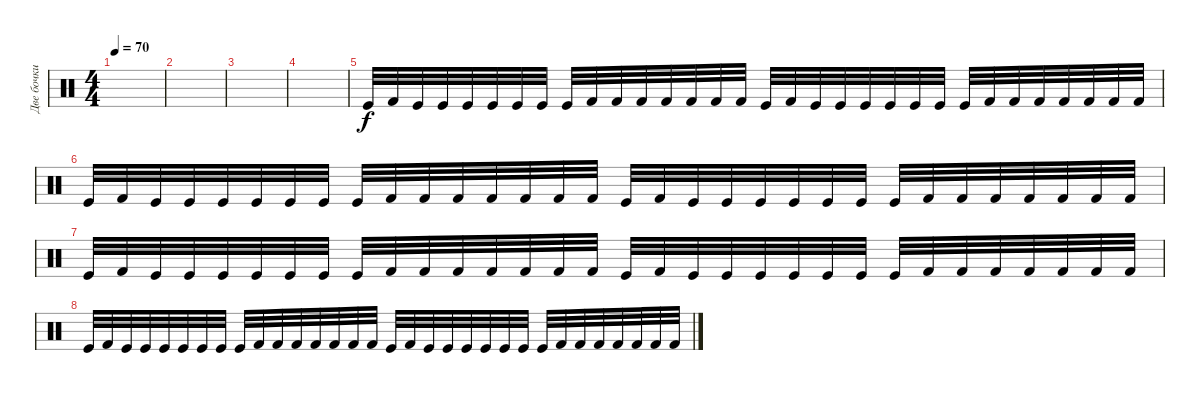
\track ("Две бочки" "Две бочки") {instrument percussion}
\staff {score}
\articulation defaults
\ts (4 4)
\tempo 70
\clef neutral
\ks c
|
|
|
|
"Kick (hit)".32 "Kick (hit) 2".32 "Kick (hit)".32 "Kick (hit)".32 "Kick (hit)".32 "Kick (hit)".32 "Kick (hit)".32 "Kick (hit)".32 "Kick (hit)".32 "Kick (hit) 2".32 "Kick (hit) 2".32 "Kick (hit) 2".32 "Kick (hit) 2".32 "Kick (hit) 2".32 "Kick (hit) 2".32 "Kick (hit) 2".32 "Kick (hit)".32 "Kick (hit) 2".32 "Kick (hit)".32 "Kick (hit)".32 "Kick (hit)".32 "Kick (hit)".32 "Kick (hit)".32 "Kick (hit)".32 "Kick (hit)".32 "Kick (hit) 2".32 "Kick (hit) 2".32 "Kick (hit) 2".32 "Kick (hit) 2".32 "Kick (hit) 2".32 "Kick (hit) 2".32 "Kick (hit) 2".32 |
"Kick (hit)".32 "Kick (hit) 2".32 "Kick (hit)".32 "Kick (hit)".32 "Kick (hit)".32 "Kick (hit)".32 "Kick (hit)".32 "Kick (hit)".32 "Kick (hit)".32 "Kick (hit) 2".32 "Kick (hit) 2".32 "Kick (hit) 2".32 "Kick (hit) 2".32 "Kick (hit) 2".32 "Kick (hit) 2".32 "Kick (hit) 2".32 "Kick (hit)".32 "Kick (hit) 2".32 "Kick (hit)".32 "Kick (hit)".32 "Kick (hit)".32 "Kick (hit)".32 "Kick (hit)".32 "Kick (hit)".32 "Kick (hit)".32 "Kick (hit) 2".32 "Kick (hit) 2".32 "Kick (hit) 2".32 "Kick (hit) 2".32 "Kick (hit) 2".32 "Kick (hit) 2".32 "Kick (hit) 2".32 |
"Kick (hit)".32 "Kick (hit) 2".32 "Kick (hit)".32 "Kick (hit)".32 "Kick (hit)".32 "Kick (hit)".32 "Kick (hit)".32 "Kick (hit)".32 "Kick (hit)".32 "Kick (hit) 2".32 "Kick (hit) 2".32 "Kick (hit) 2".32 "Kick (hit) 2".32 "Kick (hit) 2".32 "Kick (hit) 2".32 "Kick (hit) 2".32 "Kick (hit)".32 "Kick (hit) 2".32 "Kick (hit)".32 "Kick (hit)".32 "Kick (hit)".32 "Kick (hit)".32 "Kick (hit)".32 "Kick (hit)".32 "Kick (hit)".32 "Kick (hit) 2".32 "Kick (hit) 2".32 "Kick (hit) 2".32 "Kick (hit) 2".32 "Kick (hit) 2".32 "Kick (hit) 2".32 "Kick (hit) 2".32 |
"Kick (hit)".32 "Kick (hit) 2".32 "Kick (hit)".32 "Kick (hit)".32 "Kick (hit)".32 "Kick (hit)".32 "Kick (hit)".32 "Kick (hit)".32 "Kick (hit)".32 "Kick (hit) 2".32 "Kick (hit) 2".32 "Kick (hit) 2".32 "Kick (hit) 2".32 "Kick (hit) 2".32 "Kick (hit) 2".32 "Kick (hit) 2".32 "Kick (hit)".32 "Kick (hit) 2".32 "Kick (hit)".32 "Kick (hit)".32 "Kick (hit)".32 "Kick (hit)".32 "Kick (hit)".32 "Kick (hit)".32 "Kick (hit)".32 "Kick (hit) 2".32 "Kick (hit) 2".32 "Kick (hit) 2".32 "Kick (hit) 2".32 "Kick (hit) 2".32 "Kick (hit) 2".32 "Kick (hit) 2".32
